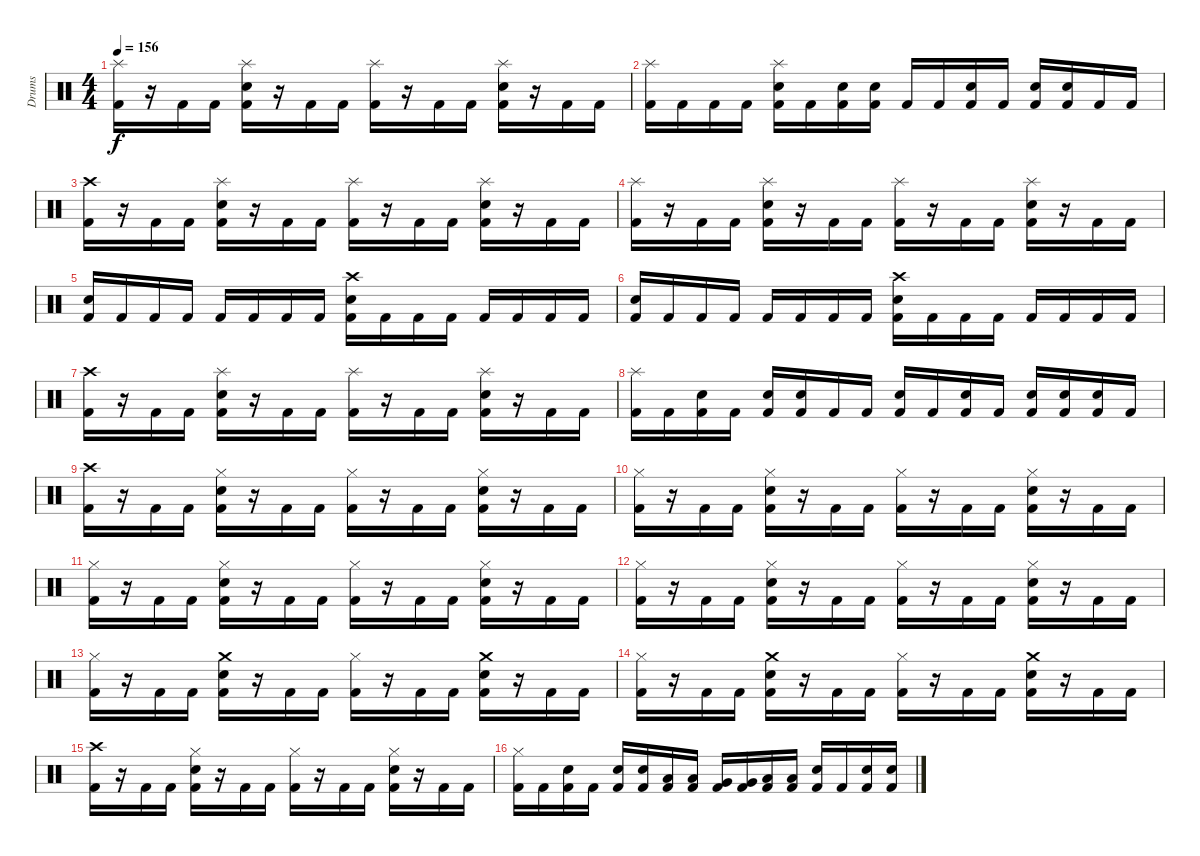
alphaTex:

\track ("Drums" "Drums") {instrument percussion}
\staff {score}
\articulation defaults
\ts (4 4)
\tempo 156
\clef neutral
\ks c
("Splash (hit)" "Kick (hit) 2").16{dy f} r.16 "Kick (hit) 2".16 "Kick (hit) 2".16 ("Splash (hit)" "Snare (hit) 2" "Kick (hit) 2").16 r.16 "Kick (hit) 2".16 "Kick (hit) 2".16 ("Splash (hit)" "Kick (hit) 2").16 r.16 "Kick (hit) 2".16 "Kick (hit) 2".16 ("Splash (hit)" "Snare (hit) 2" "Kick (hit) 2").16 r.16 "Kick (hit) 2".16 "Kick (hit) 2".16 |
("Splash (hit)" "Kick (hit) 2").16 "Kick (hit) 2".16 "Kick (hit) 2".16 "Kick (hit) 2".16 ("Splash (hit)" "Snare (hit) 2" "Kick (hit) 2").16 "Kick (hit) 2".16 ("Snare (hit) 2" "Kick (hit) 2").16 ("Snare (hit) 2" "Kick (hit) 2").16 "Kick (hit) 2".16 "Kick (hit) 2".16 ("Snare (hit) 2" "Kick (hit) 2").16 "Kick (hit) 2".16 ("Snare (hit) 2" "Kick (hit) 2").16 ("Snare (hit) 2" "Kick (hit) 2").16 "Kick (hit) 2".16 "Kick (hit) 2".16 |
("Crash high (hit)" "Kick (hit) 2").16 r.16 "Kick (hit) 2".16 "Kick (hit) 2".16 ("Splash (hit)" "Snare (hit) 2" "Kick (hit) 2").16 r.16 "Kick (hit) 2".16 "Kick (hit) 2".16 ("Splash (hit)" "Kick (hit) 2").16 r.16 "Kick (hit) 2".16 "Kick (hit) 2".16 ("Splash (hit)" "Snare (hit) 2" "Kick (hit) 2").16 r.16 "Kick (hit) 2".16 "Kick (hit) 2".16 |
("Splash (hit)" "Kick (hit) 2").16 r.16 "Kick (hit) 2".16 "Kick (hit) 2".16 ("Splash (hit)" "Snare (hit) 2" "Kick (hit) 2").16 r.16 "Kick (hit) 2".16 "Kick (hit) 2".16 ("Splash (hit)" "Kick (hit) 2").16 r.16 "Kick (hit) 2".16 "Kick (hit) 2".16 ("Splash (hit)" "Snare (hit) 2" "Kick (hit) 2").16 r.16 "Kick (hit) 2".16 "Kick (hit) 2".16 |
("Snare (hit) 2" "Kick (hit) 2").16 "Kick (hit) 2".16 "Kick (hit) 2".16 "Kick (hit) 2".16 "Kick (hit) 2".16 "Kick (hit) 2".16 "Kick (hit) 2".16 "Kick (hit) 2".16 ("Crash high (hit)" "Snare (hit) 2" "Kick (hit) 2").16 "Kick (hit) 2".16 "Kick (hit) 2".16 "Kick (hit) 2".16 "Kick (hit) 2".16 "Kick (hit) 2".16 "Kick (hit) 2".16 "Kick (hit) 2".16 |
("Snare (hit) 2" "Kick (hit) 2").16 "Kick (hit) 2".16 "Kick (hit) 2".16 "Kick (hit) 2".16 "Kick (hit) 2".16 "Kick (hit) 2".16 "Kick (hit) 2".16 "Kick (hit) 2".16 ("Crash high (hit)" "Snare (hit) 2" "Kick (hit) 2").16 "Kick (hit) 2".16 "Kick (hit) 2".16 "Kick (hit) 2".16 "Kick (hit) 2".16 "Kick (hit) 2".16 "Kick (hit) 2".16 "Kick (hit) 2".16 |
("Crash high (hit)" "Kick (hit) 2").16 r.16 "Kick (hit) 2".16 "Kick (hit) 2".16 ("Splash (hit)" "Snare (hit) 2" "Kick (hit) 2").16 r.16 "Kick (hit) 2".16 "Kick (hit) 2".16 ("Splash (hit)" "Kick (hit) 2").16 r.16 "Kick (hit) 2".16 "Kick (hit) 2".16 ("Splash (hit)" "Snare (hit) 2" "Kick (hit) 2").16 r.16 "Kick (hit) 2".16 "Kick (hit) 2".16 |
("Splash (hit)" "Kick (hit) 2").16 "Kick (hit) 2".16 ("Snare (hit) 2" "Kick (hit) 2").16 "Kick (hit) 2".16 ("Snare (hit) 2" "Kick (hit) 2").16 ("Snare (hit) 2" "Kick (hit) 2").16 "Kick (hit) 2".16 "Kick (hit) 2".16 ("Snare (hit) 2" "Kick (hit) 2").16 "Kick (hit) 2".16 ("Snare (hit) 2" "Kick (hit) 2").16 "Kick (hit) 2".16 ("Snare (hit) 2" "Kick (hit) 2").16 ("Snare (hit) 2" "Kick (hit) 2").16 ("Snare (hit) 2" "Kick (hit) 2").16 "Kick (hit) 2".16 |
\section ("" "")
("Crash high (hit)" "Kick (hit) 2").16 r.16 "Kick (hit) 2".16 "Kick (hit) 2".16 ("Hi-Hat (closed)" "Snare (hit) 2" "Kick (hit) 2").16 r.16 "Kick (hit) 2".16 "Kick (hit) 2".16 ("Hi-Hat (closed)" "Kick (hit) 2").16 r.16 "Kick (hit) 2".16 "Kick (hit) 2".16 ("Hi-Hat (closed)" "Snare (hit) 2" "Kick (hit) 2").16 r.16 "Kick (hit) 2".16 "Kick (hit) 2".16 |
("Hi-Hat (closed)" "Kick (hit) 2").16 r.16 "Kick (hit) 2".16 "Kick (hit) 2".16 ("Hi-Hat (closed)" "Snare (hit) 2" "Kick (hit) 2").16 r.16 "Kick (hit) 2".16 "Kick (hit) 2".16 ("Hi-Hat (closed)" "Kick (hit) 2").16 r.16 "Kick (hit) 2".16 "Kick (hit) 2".16 ("Hi-Hat (closed)" "Snare (hit) 2" "Kick (hit) 2").16 r.16 "Kick (hit) 2".16 "Kick (hit) 2".16 |
("Hi-Hat (closed)" "Kick (hit) 2").16 r.16 "Kick (hit) 2".16 "Kick (hit) 2".16 ("Hi-Hat (closed)" "Snare (hit) 2" "Kick (hit) 2").16 r.16 "Kick (hit) 2".16 "Kick (hit) 2".16 ("Hi-Hat (closed)" "Kick (hit) 2").16 r.16 "Kick (hit) 2".16 "Kick (hit) 2".16 ("Hi-Hat (closed)" "Snare (hit) 2" "Kick (hit) 2").16 r.16 "Kick (hit) 2".16 "Kick (hit) 2".16 |
("Hi-Hat (closed)" "Kick (hit) 2").16 r.16 "Kick (hit) 2".16 "Kick (hit) 2".16 ("Hi-Hat (closed)" "Snare (hit) 2" "Kick (hit) 2").16 r.16 "Kick (hit) 2".16 "Kick (hit) 2".16 ("Hi-Hat (closed)" "Kick (hit) 2").16 r.16 "Kick (hit) 2".16 "Kick (hit) 2".16 ("Hi-Hat (closed)" "Snare (hit) 2" "Kick (hit) 2").16 r.16 "Kick (hit) 2".16 "Kick (hit) 2".16 |
("Hi-Hat (closed)" "Kick (hit) 2").16 r.16 "Kick (hit) 2".16 "Kick (hit) 2".16 ("Crash medium (hit)" "Snare (hit) 2" "Kick (hit) 2").16 r.16 "Kick (hit) 2".16 "Kick (hit) 2".16 ("Hi-Hat (closed)" "Kick (hit) 2").16 r.16 "Kick (hit) 2".16 "Kick (hit) 2".16 ("Crash medium (hit)" "Snare (hit) 2" "Kick (hit) 2").16 r.16 "Kick (hit) 2".16 "Kick (hit) 2".16 |
("Hi-Hat (closed)" "Kick (hit) 2").16 r.16 "Kick (hit) 2".16 "Kick (hit) 2".16 ("Crash medium (hit)" "Snare (hit) 2" "Kick (hit) 2").16 r.16 "Kick (hit) 2".16 "Kick (hit) 2".16 ("Hi-Hat (closed)" "Kick (hit) 2").16 r.16 "Kick (hit) 2".16 "Kick (hit) 2".16 ("Crash medium (hit)" "Snare (hit) 2" "Kick (hit) 2").16 r.16 "Kick (hit) 2".16 "Kick (hit) 2".16 |
("Crash high (hit)" "Kick (hit) 2").16 r.16 "Kick (hit) 2".16 "Kick (hit) 2".16 ("Hi-Hat (closed)" "Snare (hit) 2" "Kick (hit) 2").16 r.16 "Kick (hit) 2".16 "Kick (hit) 2".16 ("Hi-Hat (closed)" "Kick (hit) 2").16 r.16 "Kick (hit) 2".16 "Kick (hit) 2".16 ("Hi-Hat (closed)" "Snare (hit) 2" "Kick (hit) 2").16 r.16 "Kick (hit) 2".16 "Kick (hit) 2".16 |
("Hi-Hat (closed)" "Kick (hit) 2").16 "Kick (hit) 2".16 ("Snare (hit) 2" "Kick (hit) 2").16 "Kick (hit) 2".16 ("Snare (hit) 2" "Kick (hit) 2").16 ("Snare (hit) 2" "Kick (hit) 2").16 ("Low Tom (hit)" "Kick (hit) 2").16 ("Low Tom (hit)" "Kick (hit) 2").16 ("Very Low Tom (hit)" "Kick (hit) 2").16 ("Very Low Tom (hit)" "Kick (hit) 2").16 ("Low Tom (hit)" "Kick (hit) 2").16 ("Low Tom (hit)" "Kick (hit) 2").16 ("Snare (hit) 2" "Kick (hit) 2").16 "Kick (hit) 2".16 ("Snare (hit) 2" "Kick (hit) 2").16 ("Snare (hit) 2" "Kick (hit) 2").16
